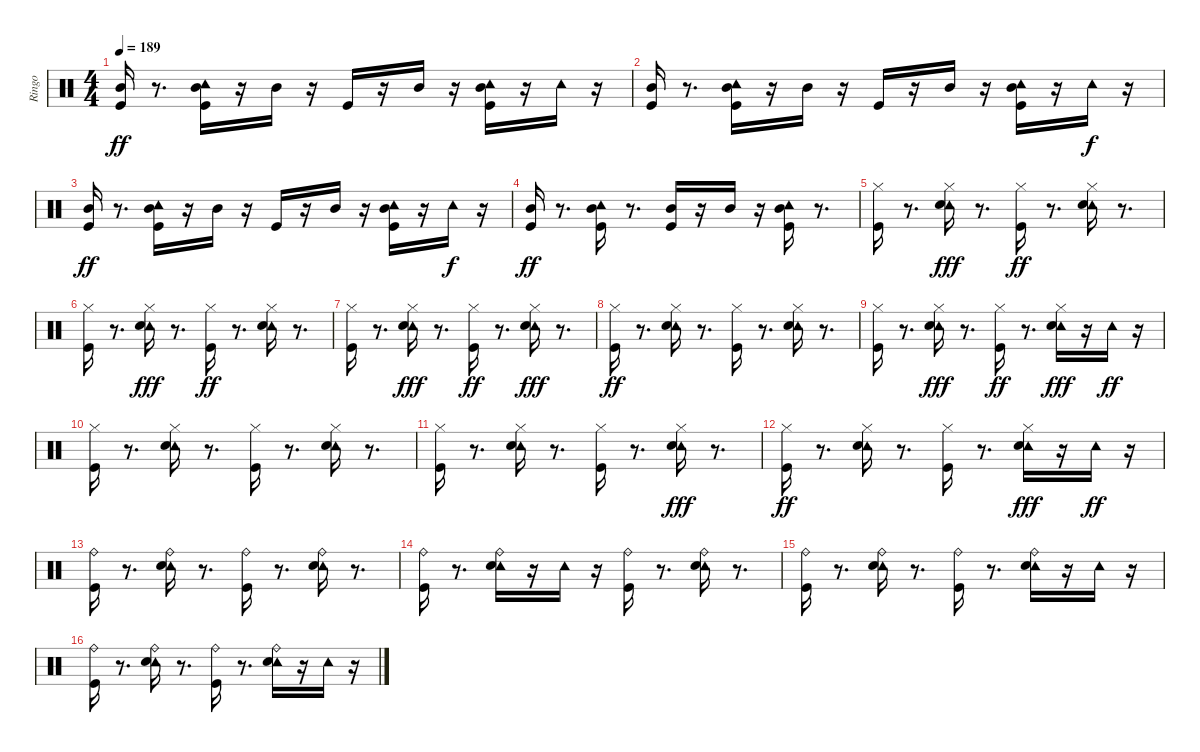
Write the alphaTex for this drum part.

\track ("Ringo" "Ringo") {instrument percussion}
\staff {score}
\articulation defaults
\ts (4 4)
\tempo 189
\clef neutral
\ks c
("Mid Tom (hit)" "Kick (hit)").16{dy ff} r.8{d} ("Mid Tom (hit)" "Tambourine (hit)" "Kick (hit)").16 r.16 "Mid Tom (hit)".16 r.16 "Kick (hit)".16 r.16 "Mid Tom (hit)".16 r.16 ("Tambourine (hit)" "Mid Tom (hit)" "Kick (hit)").16 r.16 "Tambourine (hit)".16 r.16 |
("Mid Tom (hit)" "Kick (hit)").16 r.8{d} ("Mid Tom (hit)" "Tambourine (hit)" "Kick (hit)").16 r.16 "Mid Tom (hit)".16 r.16 "Kick (hit)".16 r.16 "Mid Tom (hit)".16 r.16 ("Tambourine (hit)" "Mid Tom (hit)" "Kick (hit)").16 r.16 "Tambourine (hit)".16{dy f} r.16 |
("Mid Tom (hit)" "Kick (hit)").16{dy ff} r.8{d} ("Tambourine (hit)" "Mid Tom (hit)" "Kick (hit)").16 r.16 "Mid Tom (hit)".16 r.16 "Kick (hit)".16 r.16 "Mid Tom (hit)".16 r.16 ("Tambourine (hit)" "Mid Tom (hit)" "Kick (hit)").16 r.16 "Tambourine (hit)".16{dy f} r.16 |
("Mid Tom (hit)" "Kick (hit)").16{dy ff} r.8{d} ("Mid Tom (hit)" "Tambourine (hit)" "Kick (hit)").16 r.8{d} ("Mid Tom (hit)" "Kick (hit)").16 r.16 "Mid Tom (hit)".16 r.16 ("Tambourine (hit)" "Mid Tom (hit)" "Kick (hit)").16 r.8{d} |
("Hi-Hat (closed)" "Kick (hit)").16 r.8{d} ("Tambourine (hit)" "Hi-Hat (closed)" "Snare (hit) 2").16{dy fff} r.8{d} ("Hi-Hat (closed)" "Kick (hit)").16{dy ff} r.8{d} ("Hi-Hat (closed)" "Tambourine (hit)" "Snare (hit) 2").16 r.8{d} |
("Hi-Hat (closed)" "Kick (hit)").16 r.8{d} ("Tambourine (hit)" "Hi-Hat (closed)" "Snare (hit) 2").16{dy fff} r.8{d} ("Hi-Hat (closed)" "Kick (hit)").16{dy ff} r.8{d} ("Hi-Hat (closed)" "Tambourine (hit)" "Snare (hit) 2").16 r.8{d} |
("Hi-Hat (closed)" "Kick (hit)").16 r.8{d} ("Tambourine (hit)" "Hi-Hat (closed)" "Snare (hit) 2").16{dy fff} r.8{d} ("Hi-Hat (closed)" "Kick (hit)").16{dy ff} r.8{d} ("Tambourine (hit)" "Hi-Hat (closed)" "Snare (hit) 2").16{dy fff} r.8{d} |
("Hi-Hat (closed)" "Kick (hit)").16{dy ff} r.8{d} ("Hi-Hat (closed)" "Tambourine (hit)" "Snare (hit) 2").16 r.8{d} ("Hi-Hat (closed)" "Kick (hit)").16 r.8{d} ("Hi-Hat (closed)" "Tambourine (hit)" "Snare (hit) 2").16 r.8{d} |
("Hi-Hat (closed)" "Kick (hit)").16 r.8{d} ("Tambourine (hit)" "Hi-Hat (closed)" "Snare (hit) 2").16{dy fff} r.8{d} ("Hi-Hat (closed)" "Kick (hit)").16{dy ff} r.8{d} ("Tambourine (hit)" "Hi-Hat (closed)" "Snare (hit) 2").16{dy fff} r.16 "Tambourine (hit)".16{dy ff} r.16 |
("Hi-Hat (closed)" "Kick (hit)").16 r.8{d} ("Hi-Hat (closed)" "Tambourine (hit)" "Snare (hit) 2").16 r.8{d} ("Hi-Hat (closed)" "Kick (hit)").16 r.8{d} ("Hi-Hat (closed)" "Tambourine (hit)" "Snare (hit) 2").16 r.8{d} |
("Hi-Hat (closed)" "Kick (hit)").16 r.8{d} ("Hi-Hat (closed)" "Tambourine (hit)" "Snare (hit) 2").16 r.8{d} ("Hi-Hat (closed)" "Kick (hit)").16 r.8{d} ("Tambourine (hit)" "Hi-Hat (closed)" "Snare (hit) 2").16{dy fff} r.8{d} |
("Hi-Hat (closed)" "Kick (hit)").16{dy ff} r.8{d} ("Hi-Hat (closed)" "Tambourine (hit)" "Snare (hit) 2").16 r.8{d} ("Hi-Hat (closed)" "Kick (hit)").16 r.8{d} ("Tambourine (hit)" "Hi-Hat (closed)" "Snare (hit) 2").16{dy fff} r.16 "Tambourine (hit)".16{dy ff} r.16 |
("Ride (bell)" "Kick (hit)").16 r.8{d} ("Tambourine (hit)" "Ride (bell)" "Snare (hit) 2").16 r.8{d} ("Ride (bell)" "Kick (hit)").16 r.8{d} ("Tambourine (hit)" "Ride (bell)" "Snare (hit) 2").16 r.8{d} |
("Ride (bell)" "Kick (hit)").16 r.8{d} ("Ride (bell)" "Tambourine (hit)" "Snare (hit) 2").16 r.16 "Tambourine (hit)".16 r.16 ("Ride (bell)" "Kick (hit)").16 r.8{d} ("Tambourine (hit)" "Ride (bell)" "Snare (hit) 2").16 r.8{d} |
("Ride (bell)" "Kick (hit)").16 r.8{d} ("Ride (bell)" "Tambourine (hit)" "Snare (hit) 2").16 r.8{d} ("Ride (bell)" "Kick (hit)").16 r.8{d} ("Tambourine (hit)" "Ride (bell)" "Snare (hit) 2").16 r.16 "Tambourine (hit)".16 r.16 |
("Ride (bell)" "Kick (hit)").16 r.8{d} ("Ride (bell)" "Tambourine (hit)" "Snare (hit) 2").16 r.8{d} ("Ride (bell)" "Kick (hit)").16 r.8{d} ("Ride (bell)" "Tambourine (hit)" "Snare (hit) 2").16 r.16 "Tambourine (hit)".16 r.16
